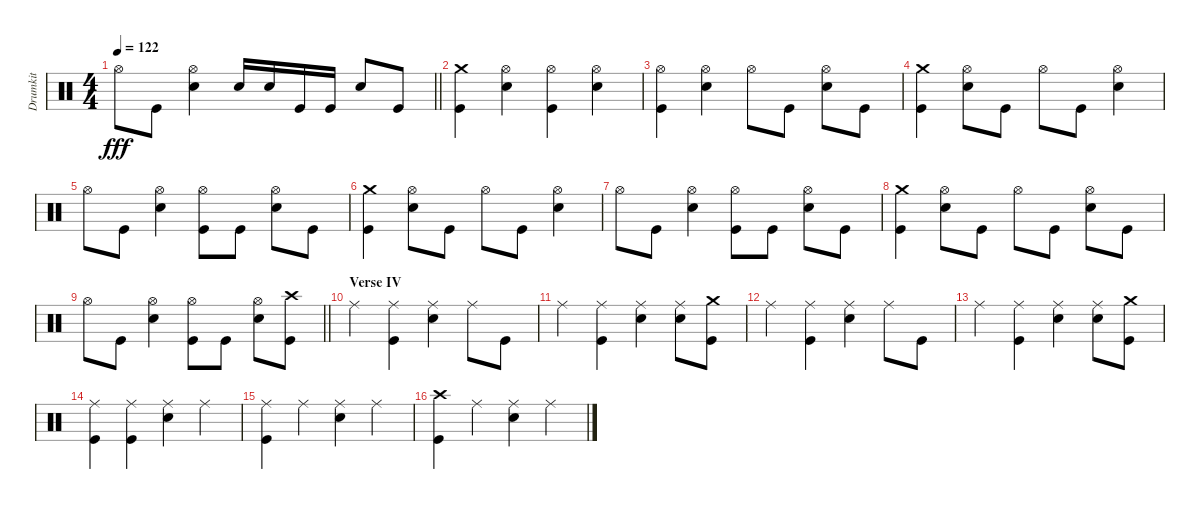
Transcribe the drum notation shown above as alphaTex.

\track ("Drumkit" "Drumkit") {mute instrument percussion}
\staff {score}
\articulation defaults
\ts (4 4)
\tempo 122
\clef neutral
\barLineRight lightlight
\ks c "Hi-Hat (open)".8{dy fff} "Kick (hit)".8
("Snare (hit) 2" "Hi-Hat (open)").4 "Snare (hit) 2".16 "Snare (hit) 2".16 "Kick (hit)".16 "Kick (hit)".16 "Snare (hit) 2".8 "Kick (hit)".8 |
("Kick (hit)" "Crash medium (hit)").4 ("Snare (hit) 2" "Hi-Hat (open)").4 ("Kick (hit)" "Hi-Hat (open)").4 ("Snare (hit) 2" "Hi-Hat (open)").4 |
("Kick (hit)" "Hi-Hat (open)").4 ("Snare (hit) 2" "Hi-Hat (open)").4 "Hi-Hat (open)".8 "Kick (hit)".8 ("Hi-Hat (open)" "Snare (hit) 2").8 "Kick (hit)".8 |
("Kick (hit)" "Crash medium (hit)").4 ("Snare (hit) 2" "Hi-Hat (open)").8 "Kick (hit)".8 "Hi-Hat (open)".8 "Kick (hit)".8 ("Snare (hit) 2" "Hi-Hat (open)").4 |
"Hi-Hat (open)".8 "Kick (hit)".8 ("Snare (hit) 2" "Hi-Hat (open)").4 ("Hi-Hat (open)" "Kick (hit)").8 "Kick (hit)".8 ("Hi-Hat (open)" "Snare (hit) 2").8 "Kick (hit)".8 |
("Kick (hit)" "Crash medium (hit)").4 ("Snare (hit) 2" "Hi-Hat (open)").8 "Kick (hit)".8 "Hi-Hat (open)".8 "Kick (hit)".8 ("Snare (hit) 2" "Hi-Hat (open)").4 |
"Hi-Hat (open)".8 "Kick (hit)".8 ("Snare (hit) 2" "Hi-Hat (open)").4 ("Hi-Hat (open)" "Kick (hit)").8 "Kick (hit)".8 ("Hi-Hat (open)" "Snare (hit) 2").8 "Kick (hit)".8 |
("Kick (hit)" "Crash medium (hit)").4 ("Snare (hit) 2" "Hi-Hat (open)").8 "Kick (hit)".8 "Hi-Hat (open)".8 "Kick (hit)".8 ("Snare (hit) 2" "Hi-Hat (open)").8 "Kick (hit)".8 |
\barLineRight lightlight "Hi-Hat (open)".8 "Kick (hit)".8
("Snare (hit) 2" "Hi-Hat (open)").4 ("Kick (hit)" "Hi-Hat (open)").8 "Kick (hit)".8 ("Snare (hit) 2" "Hi-Hat (open)").8 ("Crash high (hit)" "Kick (hit)").8 |
\section ("" "Verse IV")
"Ride (middle)".4 ("Ride (middle)" "Kick (hit)").4 ("Ride (middle)" "Snare (hit) 2").4 "Ride (middle)".8 "Kick (hit)".8 |
"Ride (middle)".4 ("Ride (middle)" "Kick (hit)").4 ("Ride (middle)" "Snare (hit) 2").4 ("Ride (middle)" "Snare (hit) 2").8 ("Kick (hit)" "Crash medium (hit)").8 |
"Ride (middle)".4 ("Ride (middle)" "Kick (hit)").4 ("Ride (middle)" "Snare (hit) 2").4 "Ride (middle)".8 "Kick (hit)".8 |
"Ride (middle)".4 ("Ride (middle)" "Kick (hit)").4 ("Ride (middle)" "Snare (hit) 2").4 ("Ride (middle)" "Snare (hit) 2").8 ("Kick (hit)" "Crash medium (hit)").8 |
("Ride (middle)" "Kick (hit)").4 ("Ride (middle)" "Kick (hit)").4 ("Ride (middle)" "Snare (hit) 2").4 "Ride (middle)".4 |
("Ride (middle)" "Kick (hit)").4 "Ride (middle)".4 ("Ride (middle)" "Snare (hit) 2").4 "Ride (middle)".4 |
("Kick (hit)" "Crash high (hit)").4 "Ride (middle)".4 ("Ride (middle)" "Snare (hit) 2").4 "Ride (middle)".4
